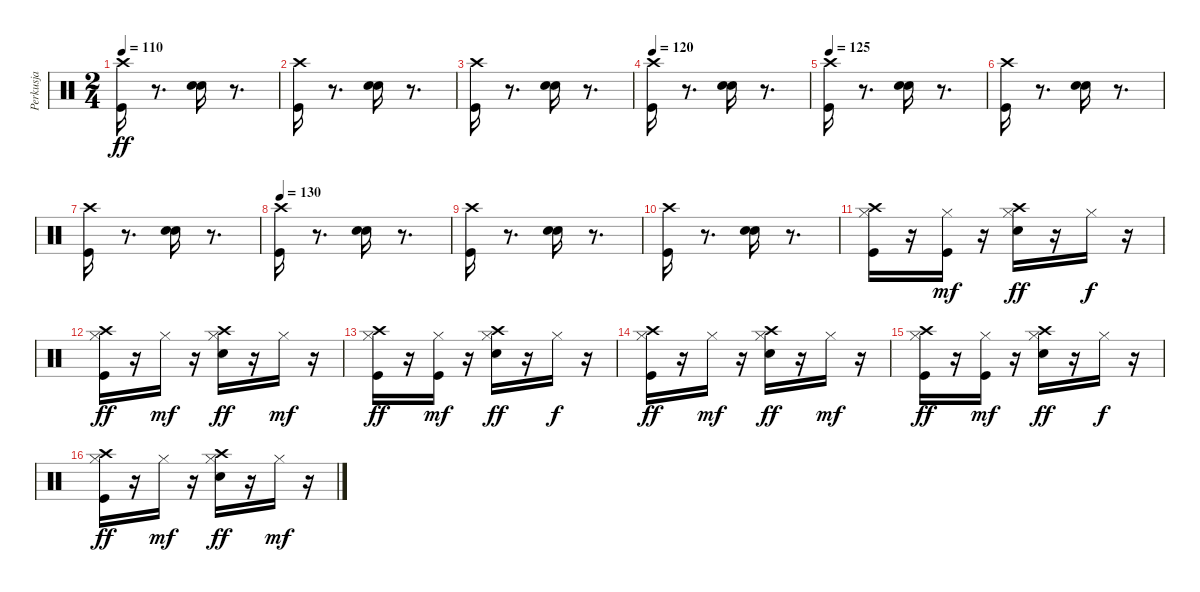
\track ("Perkusja" "Perkusja") {instrument percussion}
\staff {score}
\articulation defaults
\ts (2 4)
\tempo 110
\clef neutral
\ks c
("Kick (hit)" "Crash high (hit)").16{dy ff} r.8{d} ("Snare (hit) 2" "Snare (hit) 2").16 r.8{d} |
("Kick (hit)" "Crash high (hit)").16 r.8{d} ("Snare (hit) 2" "Snare (hit) 2").16 r.8{d} |
("Kick (hit)" "Crash high (hit)").16 r.8{d} ("Snare (hit) 2" "Snare (hit) 2").16 r.8{d} |
\tempo 120
("Kick (hit)" "Crash high (hit)").16 r.8{d} ("Snare (hit) 2" "Snare (hit) 2").16 r.8{d} |
\tempo 125
("Kick (hit)" "Crash high (hit)").16 r.8{d} ("Snare (hit) 2" "Snare (hit) 2").16 r.8{d} |
("Kick (hit)" "Crash high (hit)").16 r.8{d} ("Snare (hit) 2" "Snare (hit) 2").16 r.8{d} |
("Kick (hit)" "Crash high (hit)").16 r.8{d} ("Snare (hit) 2" "Snare (hit) 2").16 r.8{d} |
\tempo 130
("Kick (hit)" "Crash high (hit)").16 r.8{d} ("Snare (hit) 2" "Snare (hit) 2").16 r.8{d} |
("Kick (hit)" "Crash high (hit)").16 r.8{d} ("Snare (hit) 2" "Snare (hit) 2").16 r.8{d} |
("Kick (hit)" "Crash high (hit)").16 r.8{d} ("Snare (hit) 2" "Snare (hit) 2").16 r.8{d} |
("Kick (hit)" "Hi-Hat (closed)" "Crash high (hit)").16 r.16 ("Kick (hit)" "Hi-Hat (closed)").16{dy mf} r.16 ("Snare (hit) 2" "Hi-Hat (closed)" "Crash high (hit)").16{dy ff} r.16 "Hi-Hat (closed)".16{dy f} r.16 |
("Kick (hit)" "Hi-Hat (closed)" "Crash high (hit)").16{dy ff} r.16 "Hi-Hat (closed)".16{dy mf} r.16 ("Snare (hit) 2" "Hi-Hat (closed)" "Crash high (hit)").16{dy ff} r.16 "Hi-Hat (closed)".16{dy mf} r.16 |
("Kick (hit)" "Hi-Hat (closed)" "Crash high (hit)").16{dy ff} r.16 ("Kick (hit)" "Hi-Hat (closed)").16{dy mf} r.16 ("Snare (hit) 2" "Hi-Hat (closed)" "Crash high (hit)").16{dy ff} r.16 "Hi-Hat (closed)".16{dy f} r.16 |
("Kick (hit)" "Hi-Hat (closed)" "Crash high (hit)").16{dy ff} r.16 "Hi-Hat (closed)".16{dy mf} r.16 ("Snare (hit) 2" "Hi-Hat (closed)" "Crash high (hit)").16{dy ff} r.16 "Hi-Hat (closed)".16{dy mf} r.16 |
("Kick (hit)" "Hi-Hat (closed)" "Crash high (hit)").16{dy ff} r.16 ("Kick (hit)" "Hi-Hat (closed)").16{dy mf} r.16 ("Snare (hit) 2" "Hi-Hat (closed)" "Crash high (hit)").16{dy ff} r.16 "Hi-Hat (closed)".16{dy f} r.16 |
("Kick (hit)" "Hi-Hat (closed)" "Crash high (hit)").16{dy ff} r.16 "Hi-Hat (closed)".16{dy mf} r.16 ("Snare (hit) 2" "Hi-Hat (closed)" "Crash high (hit)").16{dy ff} r.16 "Hi-Hat (closed)".16{dy mf} r.16
